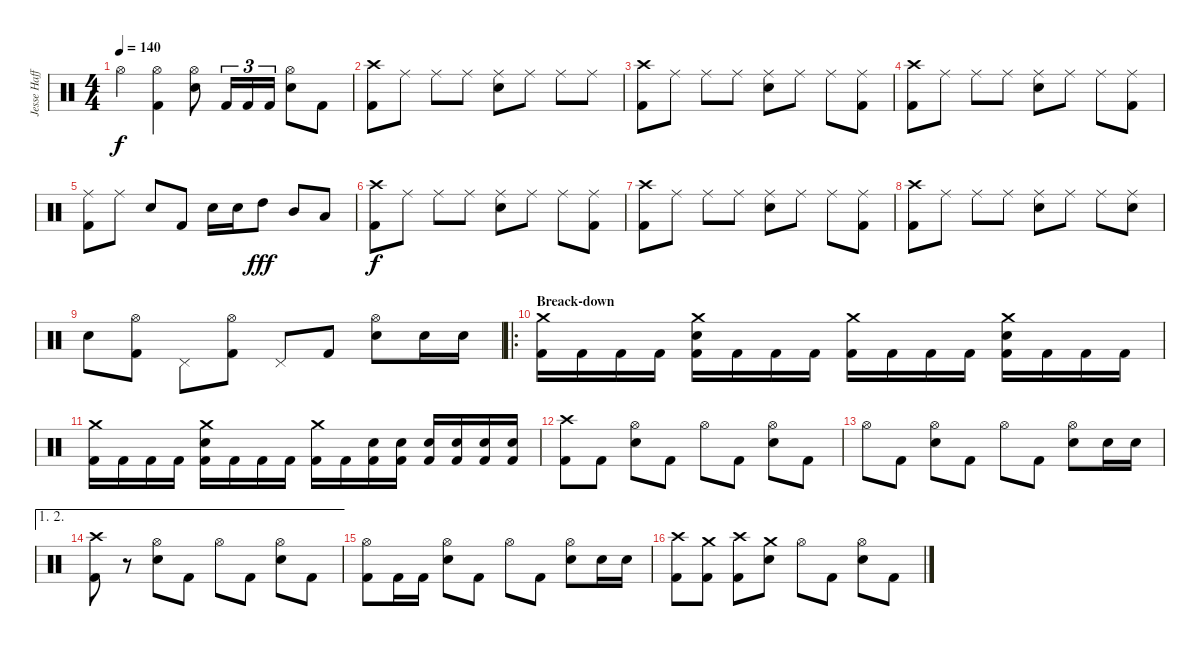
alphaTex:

\track ("Jesse Haff" "Jesse Haff") {instrument percussion}
\staff {score}
\articulation defaults
\ts (4 4)
\tempo 140
\clef neutral
\ks c "Hi-Hat (open)".4{dy f}
("Hi-Hat (open)" "Kick (hit) 2").4 ("Hi-Hat (open)" "Electric Snare (hit)").8 "Kick (hit) 2".16{tu (3 2)} "Kick (hit) 2".16{tu (3 2)} "Kick (hit) 2".16{tu (3 2)} ("Hi-Hat (open)" "Electric Snare (hit)").8 "Kick (hit) 2".8 |
("Crash high (hit)" "Kick (hit) 2").8 "Ride (middle)".8 "Ride (middle)".8 "Ride (middle)".8 ("Ride (middle)" "Electric Snare (hit)").8 "Ride (middle)".8 "Ride (middle)".8 "Ride (middle)".8 |
("Crash high (hit)" "Kick (hit) 2").8 "Ride (middle)".8 "Ride (middle)".8 "Ride (middle)".8 ("Ride (middle)" "Electric Snare (hit)").8 "Ride (middle)".8 "Ride (middle)".8 ("Ride (middle)" "Kick (hit) 2").8 |
("Crash high (hit)" "Kick (hit) 2").8 "Ride (middle)".8 "Ride (middle)".8 "Ride (middle)".8 ("Ride (middle)" "Electric Snare (hit)").8 "Ride (middle)".8 "Ride (middle)".8 ("Ride (middle)" "Kick (hit) 2").8 |
("Ride (middle)" "Kick (hit) 2").8 "Ride (middle)".8 "Electric Snare (hit)".8 "Kick (hit) 2".8 "Electric Snare (hit)".16 "Electric Snare (hit)".16 "High Tom (hit)".8{dy fff} "Mid Tom (hit)".8 "Low Tom (hit)".8 |
("Crash high (hit)" "Kick (hit) 2").8{dy f} "Ride (middle)".8 "Ride (middle)".8 "Ride (middle)".8 ("Ride (middle)" "Electric Snare (hit)").8 "Ride (middle)".8 "Ride (middle)".8 ("Ride (middle)" "Kick (hit) 2").8 |
("Crash high (hit)" "Kick (hit) 2").8 "Ride (middle)".8 "Ride (middle)".8 "Ride (middle)".8 ("Ride (middle)" "Electric Snare (hit)").8 "Ride (middle)".8 "Ride (middle)".8 ("Ride (middle)" "Kick (hit) 2").8 |
("Crash high (hit)" "Kick (hit) 2").8 "Ride (middle)".8 "Ride (middle)".8 "Ride (middle)".8 ("Ride (middle)" "Electric Snare (hit)").8 "Ride (middle)".8 "Ride (middle)".8 ("Ride (middle)" "Electric Snare (hit)").8 |
"Electric Snare (hit)".8 ("Hi-Hat (open)" "Kick (hit) 2").8 "Pedal Hi-Hat (hit)".8 ("Hi-Hat (open)" "Kick (hit) 2").8 "Pedal Hi-Hat (hit)".8 "Kick (hit) 2".8 ("Hi-Hat (open)" "Electric Snare (hit)").8 "Electric Snare (hit)".16 "Electric Snare (hit)".16 |
\ro
\section ("" "Breack-down ")
("Crash medium (hit)" "Kick (hit) 2").16 "Kick (hit) 2".16 "Kick (hit) 2".16 "Kick (hit) 2".16 ("Crash medium (hit)" "Electric Snare (hit)" "Kick (hit) 2").16 "Kick (hit) 2".16 "Kick (hit) 2".16 "Kick (hit) 2".16 ("Crash medium (hit)" "Kick (hit) 2").16 "Kick (hit) 2".16 "Kick (hit) 2".16 "Kick (hit) 2".16 ("Crash medium (hit)" "Electric Snare (hit)" "Kick (hit) 2").16 "Kick (hit) 2".16 "Kick (hit) 2".16 "Kick (hit) 2".16 |
("Crash medium (hit)" "Kick (hit) 2").16 "Kick (hit) 2".16 "Kick (hit) 2".16 "Kick (hit) 2".16 ("Crash medium (hit)" "Electric Snare (hit)" "Kick (hit) 2").16 "Kick (hit) 2".16 "Kick (hit) 2".16 "Kick (hit) 2".16 ("Crash medium (hit)" "Kick (hit) 2").16 "Kick (hit) 2".16 ("Electric Snare (hit)" "Kick (hit) 2").16 ("Electric Snare (hit)" "Kick (hit) 2").16 ("Electric Snare (hit)" "Kick (hit) 2").16 ("Electric Snare (hit)" "Kick (hit) 2").16 ("Electric Snare (hit)" "Kick (hit) 2").16 ("Electric Snare (hit)" "Kick (hit) 2").16 |
("Crash high (hit)" "Kick (hit) 2").8 "Kick (hit) 2".8 ("Hi-Hat (open)" "Electric Snare (hit)").8 "Kick (hit) 2".8 "Hi-Hat (open)".8 "Kick (hit) 2".8 ("Hi-Hat (open)" "Electric Snare (hit)").8 "Kick (hit) 2".8 |
"Hi-Hat (open)".8 "Kick (hit) 2".8 ("Hi-Hat (open)" "Electric Snare (hit)").8 "Kick (hit) 2".8 "Hi-Hat (open)".8 "Kick (hit) 2".8 ("Hi-Hat (open)" "Electric Snare (hit)").8 "Electric Snare (hit)".16 "Electric Snare (hit)".16 |
\ae (1 2)
("Crash high (hit)" "Kick (hit) 2").8 r.8 ("Hi-Hat (open)" "Electric Snare (hit)").8 "Kick (hit) 2".8 "Hi-Hat (open)".8 "Kick (hit) 2".8 ("Hi-Hat (open)" "Electric Snare (hit)").8 "Kick (hit) 2".8 |
("Hi-Hat (open)" "Kick (hit) 2").8 "Kick (hit) 2".16 "Kick (hit) 2".16 ("Hi-Hat (open)" "Electric Snare (hit)").8 "Kick (hit) 2".8 "Hi-Hat (open)".8 "Kick (hit) 2".8 ("Hi-Hat (open)" "Electric Snare (hit)").8 "Electric Snare (hit)".16 "Electric Snare (hit)".16 |
("Crash high (hit)" "Kick (hit) 2").8 ("Crash medium (hit)" "Kick (hit) 2").8 ("Crash high (hit)" "Kick (hit) 2").8 ("Crash medium (hit)" "Electric Snare (hit)").8 "Hi-Hat (open)".8 "Kick (hit) 2".8 ("Hi-Hat (open)" "Electric Snare (hit)").8 "Kick (hit) 2".8
